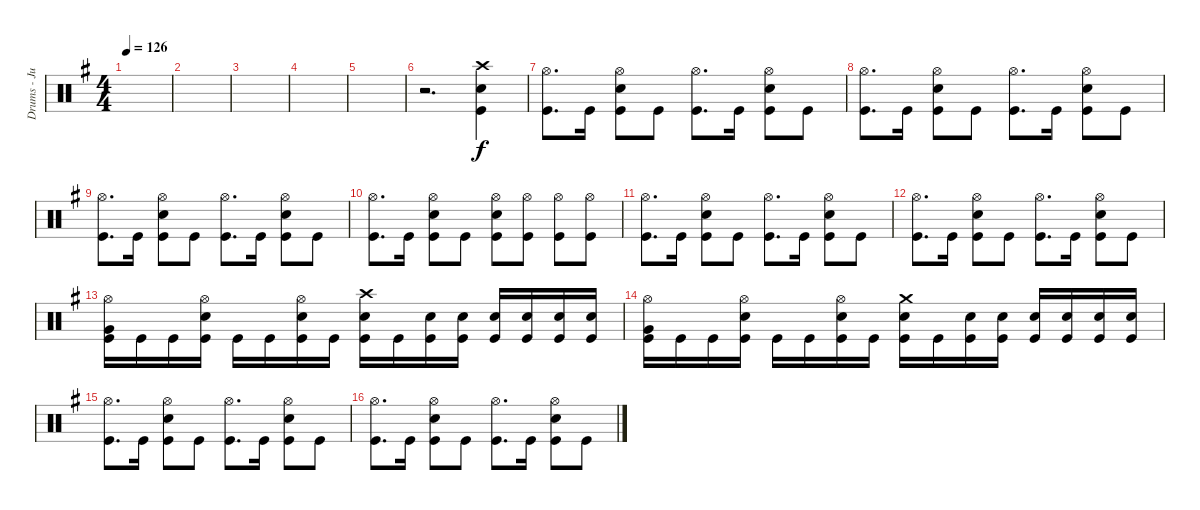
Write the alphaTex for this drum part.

\track ("Drums - Jukka" "Drums - Ju") {instrument percussion}
\staff {score}
\articulation defaults
\ts (4 4)
\tempo 126
\clef neutral
\ks eminor
|
|
|
|
|
r.2{d} ("Crash high (hit)" "Kick (hit)" "Snare (hit) 2").4 |
("Kick (hit)" "Hi-Hat (open)").8{d} "Kick (hit)".16 ("Kick (hit)" "Hi-Hat (open)" "Snare (hit) 2").8 "Kick (hit)".8 ("Kick (hit)" "Hi-Hat (open)").8{d} "Kick (hit)".16 ("Kick (hit)" "Hi-Hat (open)" "Snare (hit) 2").8 "Kick (hit)".8 |
("Kick (hit)" "Hi-Hat (open)").8{d} "Kick (hit)".16 ("Kick (hit)" "Hi-Hat (open)" "Snare (hit) 2").8 "Kick (hit)".8 ("Kick (hit)" "Hi-Hat (open)").8{d} "Kick (hit)".16 ("Kick (hit)" "Hi-Hat (open)" "Snare (hit) 2").8 "Kick (hit)".8 |
("Kick (hit)" "Hi-Hat (open)").8{d} "Kick (hit)".16 ("Kick (hit)" "Hi-Hat (open)" "Snare (hit) 2").8 "Kick (hit)".8 ("Kick (hit)" "Hi-Hat (open)").8{d} "Kick (hit)".16 ("Kick (hit)" "Hi-Hat (open)" "Snare (hit) 2").8 "Kick (hit)".8 |
("Kick (hit)" "Hi-Hat (open)").8{d} "Kick (hit)".16 ("Kick (hit)" "Hi-Hat (open)" "Snare (hit) 2").8 "Kick (hit)".8 ("Kick (hit)" "Hi-Hat (open)" "Snare (hit) 2").8 ("Kick (hit)" "Hi-Hat (open)").8 ("Kick (hit)" "Hi-Hat (open)").8 ("Kick (hit)" "Hi-Hat (open)").8 |
("Kick (hit)" "Hi-Hat (open)").8{d} "Kick (hit)".16 ("Kick (hit)" "Hi-Hat (open)" "Snare (hit) 2").8 "Kick (hit)".8 ("Kick (hit)" "Hi-Hat (open)").8{d} "Kick (hit)".16 ("Kick (hit)" "Hi-Hat (open)" "Snare (hit) 2").8 "Kick (hit)".8 |
("Kick (hit)" "Hi-Hat (open)").8{d} "Kick (hit)".16 ("Kick (hit)" "Hi-Hat (open)" "Snare (hit) 2").8 "Kick (hit)".8 ("Kick (hit)" "Hi-Hat (open)").8{d} "Kick (hit)".16 ("Kick (hit)" "Hi-Hat (open)" "Snare (hit) 2").8 "Kick (hit)".8 |
("Kick (hit)" "Very Low Tom (hit)" "Hi-Hat (open)").16 "Kick (hit)".16 "Kick (hit)".16 ("Kick (hit)" "Snare (hit) 2" "Hi-Hat (open)").16 "Kick (hit)".16 "Kick (hit)".16 ("Kick (hit)" "Snare (hit) 2" "Hi-Hat (open)").16 "Kick (hit)".16 ("Kick (hit)" "Snare (hit) 2" "Crash high (hit)").16 "Kick (hit)".16 ("Kick (hit)" "Snare (hit) 2").16 ("Kick (hit)" "Snare (hit) 2").16 ("Kick (hit)" "Snare (hit) 2").16 ("Kick (hit)" "Snare (hit) 2").16 ("Kick (hit)" "Snare (hit) 2").16 ("Kick (hit)" "Snare (hit) 2").16 |
("Kick (hit)" "Very Low Tom (hit)" "Hi-Hat (open)").16 "Kick (hit)".16 "Kick (hit)".16 ("Kick (hit)" "Hi-Hat (open)" "Snare (hit) 2").16 "Kick (hit)".16 "Kick (hit)".16 ("Kick (hit)" "Hi-Hat (open)" "Snare (hit) 2").16 "Kick (hit)".16 ("Kick (hit)" "Crash medium (hit)" "Snare (hit) 2").16 "Kick (hit)".16 ("Kick (hit)" "Snare (hit) 2").16 ("Kick (hit)" "Snare (hit) 2").16 ("Kick (hit)" "Snare (hit) 2").16 ("Kick (hit)" "Snare (hit) 2").16 ("Kick (hit)" "Snare (hit) 2").16 ("Kick (hit)" "Snare (hit) 2").16 |
("Kick (hit)" "Hi-Hat (open)").8{d} "Kick (hit)".16 ("Kick (hit)" "Hi-Hat (open)" "Snare (hit) 2").8 "Kick (hit)".8 ("Kick (hit)" "Hi-Hat (open)").8{d} "Kick (hit)".16 ("Kick (hit)" "Hi-Hat (open)" "Snare (hit) 2").8 "Kick (hit)".8 |
("Kick (hit)" "Hi-Hat (open)").8{d} "Kick (hit)".16 ("Kick (hit)" "Hi-Hat (open)" "Snare (hit) 2").8 "Kick (hit)".8 ("Kick (hit)" "Hi-Hat (open)").8{d} "Kick (hit)".16 ("Kick (hit)" "Hi-Hat (open)" "Snare (hit) 2").8 "Kick (hit)".8
